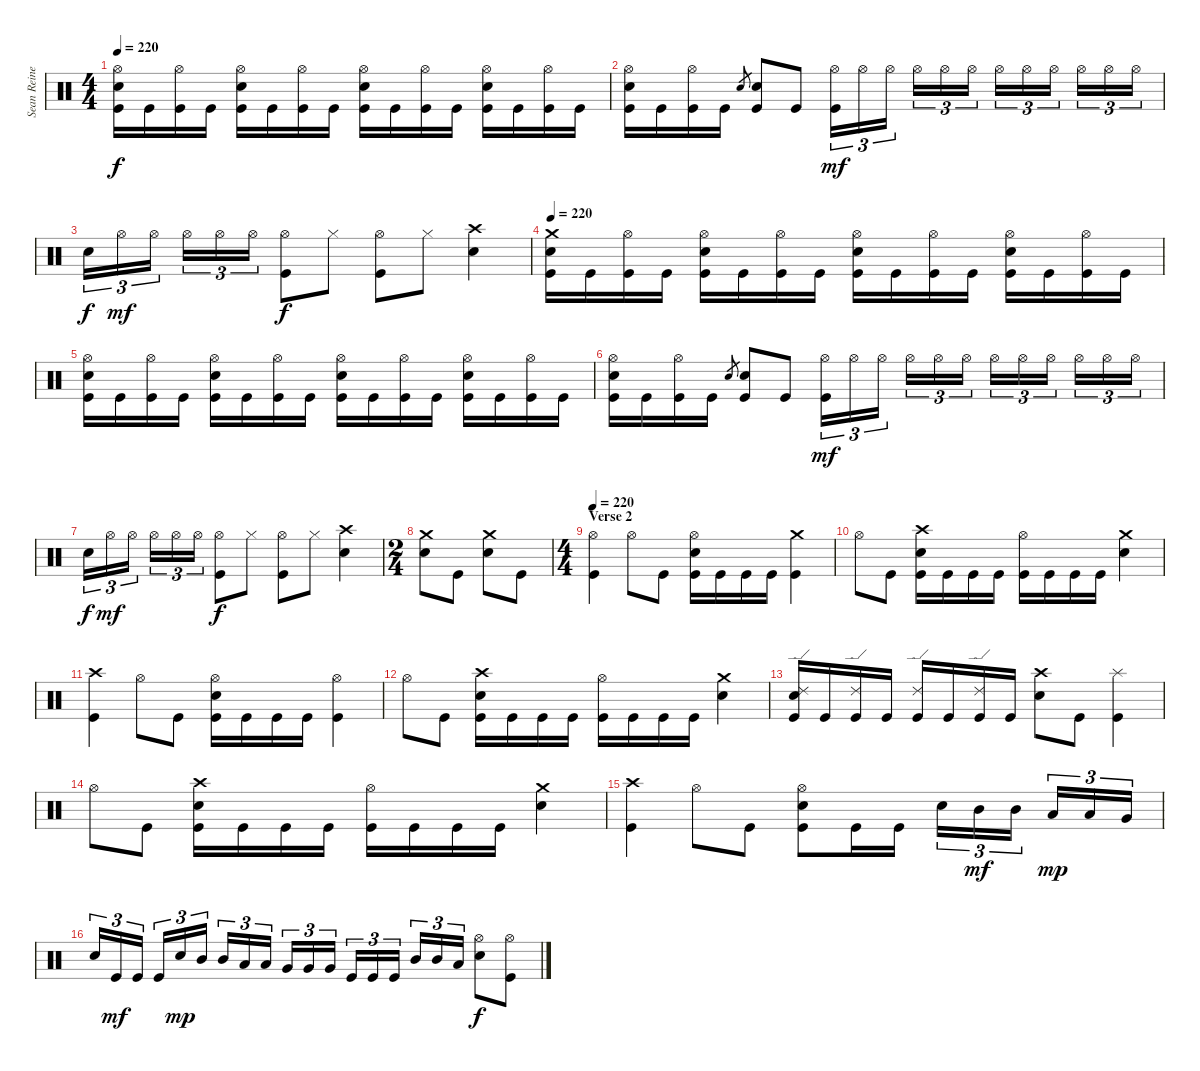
\track ("Sean Reinert " "Sean Reine") {instrument percussion}
\staff {score}
\articulation defaults
\ts (4 4)
\tempo 220
\clef neutral
\ks c
("Hi-Hat (open)" "Electric Snare (hit)" "Kick (hit)").16{dy f} "Kick (hit)".16 ("Hi-Hat (open)" "Kick (hit)").16 "Kick (hit)".16 ("Hi-Hat (open)" "Electric Snare (hit)" "Kick (hit)").16 "Kick (hit)".16 ("Hi-Hat (open)" "Kick (hit)").16 "Kick (hit)".16 ("Hi-Hat (open)" "Electric Snare (hit)" "Kick (hit)").16 "Kick (hit)".16 ("Hi-Hat (open)" "Kick (hit)").16 "Kick (hit)".16 ("Hi-Hat (open)" "Electric Snare (hit)" "Kick (hit)").16 "Kick (hit)".16 ("Hi-Hat (open)" "Kick (hit)").16 "Kick (hit)".16 |
("Hi-Hat (open)" "Electric Snare (hit)" "Kick (hit)").16 "Kick (hit)".16 ("Hi-Hat (open)" "Kick (hit)").16 "Kick (hit)".16 "Electric Snare (hit)".8{gr} ("Electric Snare (hit)" "Kick (hit)").8 "Kick (hit)".8 ("Hi-Hat (open)" "Kick (hit)").16{tu (3 2) dy mf} "Hi-Hat (open)".16{tu (3 2)} "Hi-Hat (open)".16{tu (3 2)} "Hi-Hat (open)".16{tu (3 2)} "Hi-Hat (open)".16{tu (3 2)} "Hi-Hat (open)".16{tu (3 2)} "Hi-Hat (open)".16{tu (3 2)} "Hi-Hat (open)".16{tu (3 2)} "Hi-Hat (open)".16{tu (3 2)} "Hi-Hat (open)".16{tu (3 2)} "Hi-Hat (open)".16{tu (3 2)} "Hi-Hat (open)".16{tu (3 2)} |
"Electric Snare (hit)".16{tu (3 2) dy f} "Hi-Hat (open)".16{tu (3 2) dy mf} "Hi-Hat (open)".16{tu (3 2)} "Hi-Hat (open)".16{tu (3 2)} "Hi-Hat (open)".16{tu (3 2)} "Hi-Hat (open)".16{tu (3 2)} ("Hi-Hat (open)" "Kick (hit)").8{dy f} "Hi-Hat (closed)".8 ("Hi-Hat (open)" "Kick (hit)").8 "Hi-Hat (closed)".8 ("Crash high (hit)" "Electric Snare (hit)").4 |
\tempo 220
("Crash medium (hit)" "Electric Snare (hit)" "Kick (hit)").16 "Kick (hit)".16 ("Hi-Hat (open)" "Kick (hit)").16 "Kick (hit)".16 ("Hi-Hat (open)" "Electric Snare (hit)" "Kick (hit)").16 "Kick (hit)".16 ("Hi-Hat (open)" "Kick (hit)").16 "Kick (hit)".16 ("Hi-Hat (open)" "Electric Snare (hit)" "Kick (hit)").16 "Kick (hit)".16 ("Hi-Hat (open)" "Kick (hit)").16 "Kick (hit)".16 ("Hi-Hat (open)" "Electric Snare (hit)" "Kick (hit)").16 "Kick (hit)".16 ("Hi-Hat (open)" "Kick (hit)").16 "Kick (hit)".16 |
("Hi-Hat (open)" "Electric Snare (hit)" "Kick (hit)").16 "Kick (hit)".16 ("Hi-Hat (open)" "Kick (hit)").16 "Kick (hit)".16 ("Hi-Hat (open)" "Electric Snare (hit)" "Kick (hit)").16 "Kick (hit)".16 ("Hi-Hat (open)" "Kick (hit)").16 "Kick (hit)".16 ("Hi-Hat (open)" "Electric Snare (hit)" "Kick (hit)").16 "Kick (hit)".16 ("Hi-Hat (open)" "Kick (hit)").16 "Kick (hit)".16 ("Hi-Hat (open)" "Electric Snare (hit)" "Kick (hit)").16 "Kick (hit)".16 ("Hi-Hat (open)" "Kick (hit)").16 "Kick (hit)".16 |
("Hi-Hat (open)" "Electric Snare (hit)" "Kick (hit)").16 "Kick (hit)".16 ("Hi-Hat (open)" "Kick (hit)").16 "Kick (hit)".16 "Electric Snare (hit)".8{gr} ("Electric Snare (hit)" "Kick (hit)").8 "Kick (hit)".8 ("Hi-Hat (open)" "Kick (hit)").16{tu (3 2) dy mf} "Hi-Hat (open)".16{tu (3 2)} "Hi-Hat (open)".16{tu (3 2)} "Hi-Hat (open)".16{tu (3 2)} "Hi-Hat (open)".16{tu (3 2)} "Hi-Hat (open)".16{tu (3 2)} "Hi-Hat (open)".16{tu (3 2)} "Hi-Hat (open)".16{tu (3 2)} "Hi-Hat (open)".16{tu (3 2)} "Hi-Hat (open)".16{tu (3 2)} "Hi-Hat (open)".16{tu (3 2)} "Hi-Hat (open)".16{tu (3 2)} |
"Electric Snare (hit)".16{tu (3 2) dy f} "Hi-Hat (open)".16{tu (3 2) dy mf} "Hi-Hat (open)".16{tu (3 2)} "Hi-Hat (open)".16{tu (3 2)} "Hi-Hat (open)".16{tu (3 2)} "Hi-Hat (open)".16{tu (3 2)} ("Hi-Hat (open)" "Kick (hit)").8{dy f} "Hi-Hat (closed)".8 ("Hi-Hat (open)" "Kick (hit)").8 "Hi-Hat (closed)".8 ("Crash high (hit)" "Electric Snare (hit)").4 |
\ts (2 4)
("Crash medium (hit)" "Electric Snare (hit)").8 "Kick (hit)".8 ("Crash medium (hit)" "Electric Snare (hit)").8 "Kick (hit)".8 |
\ts (4 4)
\section ("" "Verse 2")
\tempo 220
("Hi-Hat (open)" "Kick (hit)").4 "Hi-Hat (open)".8 "Kick (hit)".8 ("Hi-Hat (open)" "Electric Snare (hit)" "Kick (hit)").16 "Kick (hit)".16 "Kick (hit)".16 "Kick (hit)".16 ("Crash medium (hit)" "Kick (hit)").4 |
"Hi-Hat (open)".8 "Kick (hit)".8 ("Crash high (hit)" "Electric Snare (hit)" "Kick (hit)").16 "Kick (hit)".16 "Kick (hit)".16 "Kick (hit)".16 ("Hi-Hat (open)" "Kick (hit)").16 "Kick (hit)".16 "Kick (hit)".16 "Kick (hit)".16 ("Crash medium (hit)" "Electric Snare (hit)").4 |
("Crash high (hit)" "Kick (hit)").4 "Hi-Hat (open)".8 "Kick (hit)".8 ("Hi-Hat (open)" "Electric Snare (hit)" "Kick (hit)").16 "Kick (hit)".16 "Kick (hit)".16 "Kick (hit)".16 ("Hi-Hat (open)" "Kick (hit)").4 |
"Hi-Hat (open)".8 "Kick (hit)".8 ("Crash high (hit)" "Electric Snare (hit)" "Kick (hit)").16 "Kick (hit)".16 "Kick (hit)".16 "Kick (hit)".16 ("Hi-Hat (open)" "Kick (hit)").16 "Kick (hit)".16 "Kick (hit)".16 "Kick (hit)".16 ("Crash medium (hit)" "Electric Snare (hit)").4 |
("Ride (edge) 2" "Electric Snare (hit)" "Kick (hit)").16 "Kick (hit)".16 ("Ride (edge) 2" "Kick (hit)").16 "Kick (hit)".16 ("Ride (edge) 2" "Kick (hit)").16 "Kick (hit)".16 ("Ride (edge) 2" "Kick (hit)").16 "Kick (hit)".16 ("Crash high (hit)" "Electric Snare (hit)").8 "Kick (hit)".8 ("Splash (hit)" "Kick (hit)").4 |
"Hi-Hat (open)".8 "Kick (hit)".8 ("Crash high (hit)" "Electric Snare (hit)" "Kick (hit)").16 "Kick (hit)".16 "Kick (hit)".16 "Kick (hit)".16 ("Hi-Hat (open)" "Kick (hit)").16 "Kick (hit)".16 "Kick (hit)".16 "Kick (hit)".16 ("Crash medium (hit)" "Electric Snare (hit)").4 |
("Crash high (hit)" "Kick (hit)").4 "Hi-Hat (open)".8 "Kick (hit)".8 ("Hi-Hat (open)" "Electric Snare (hit)" "Kick (hit)").8 "Kick (hit)".16 "Kick (hit)".16 "Electric Snare (hit)".16{tu (3 2)} "Mid Tom (hit)".16{tu (3 2) dy mf} "Mid Tom (hit)".16{tu (3 2)} "Low Tom (hit)".16{tu (3 2) dy mp} "Low Tom (hit)".16{tu (3 2)} "Very Low Tom (hit)".16{tu (3 2)} |
"Electric Snare (hit)".16{tu (3 2)} "Kick (hit)".16{tu (3 2) dy mf} "Kick (hit)".16{tu (3 2)} "Kick (hit)".16{tu (3 2)} "Electric Snare (hit)".16{tu (3 2) dy mp} "Mid Tom (hit)".16{tu (3 2)} "Mid Tom (hit)".16{tu (3 2)} "Low Tom (hit)".16{tu (3 2)} "Low Tom (hit)".16{tu (3 2)} "Very Low Tom (hit)".16{tu (3 2)} "Very Low Tom (hit)".16{tu (3 2)} "Very Low Tom (hit)".16{tu (3 2)} "Kick (hit)".16{tu (3 2)} "Kick (hit)".16{tu (3 2)} "Kick (hit)".16{tu (3 2)} "Mid Tom (hit)".16{tu (3 2)} "Mid Tom (hit)".16{tu (3 2)} "Low Tom (hit)".16{tu (3 2)} ("Hi-Hat (open)" "Electric Snare (hit)").8{dy f} ("Hi-Hat (open)" "Kick (hit)").8
